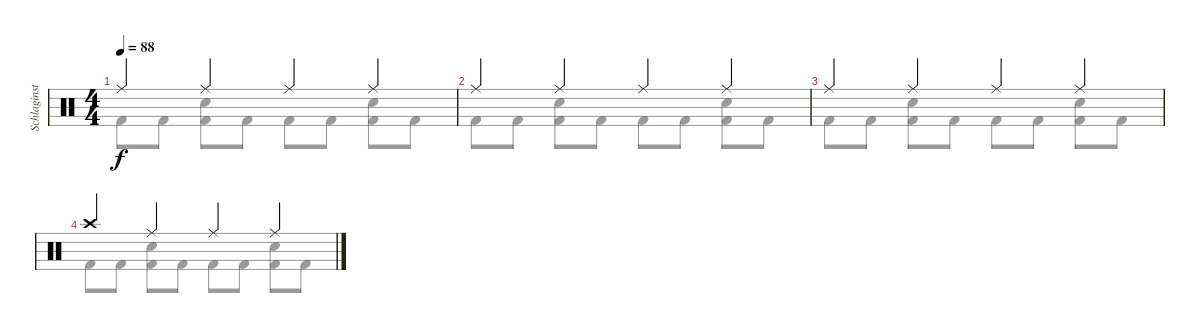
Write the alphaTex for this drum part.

\track ("Schlaginstrumente - Auswahl" "Schlaginst") {instrument percussion}
\staff {score}
\articulation defaults
\voice
\ts (4 4)
\tempo 88
\clef neutral
\ks c "Ride (middle)".4{dy f} "Ride (middle)".4 "Ride (middle)".4 "Ride (middle)".4
|
"Ride (middle)".4 "Ride (middle)".4 "Ride (middle)".4 "Ride (middle)".4 |
"Ride (middle)".4 "Ride (middle)".4 "Ride (middle)".4 "Ride (middle)".4 |
"Crash high (hit)".4{volume 10 balance 8} "Ride (middle)".4 "Ride (middle)".4 "Ride (middle)".4 |
|
|
\voice
\clef neutral
\ottava regular
\simile none
\ks c "Kick (hit) 2".8{dy f} "Kick (hit) 2".8
("Electric Snare (hit)" "Kick (hit) 2").8 "Kick (hit) 2".8 "Kick (hit) 2".8 "Kick (hit) 2".8 ("Electric Snare (hit)" "Kick (hit) 2").8 "Kick (hit) 2".8 |
"Kick (hit) 2".8 "Kick (hit) 2".8 ("Electric Snare (hit)" "Kick (hit) 2").8 "Kick (hit) 2".8 "Kick (hit) 2".8 "Kick (hit) 2".8 ("Electric Snare (hit)" "Kick (hit) 2").8 "Kick (hit) 2".8 |
"Kick (hit) 2".8 "Kick (hit) 2".8 ("Electric Snare (hit)" "Kick (hit) 2").8 "Kick (hit) 2".8 "Kick (hit) 2".8 "Kick (hit) 2".8 ("Electric Snare (hit)" "Kick (hit) 2").8 "Kick (hit) 2".8 |
"Kick (hit) 2".8 "Kick (hit) 2".8 ("Electric Snare (hit)" "Kick (hit) 2").8 "Kick (hit) 2".8 "Kick (hit) 2".8 "Kick (hit) 2".8 ("Electric Snare (hit)" "Kick (hit) 2").8 "Kick (hit) 2".8 |
|
|
